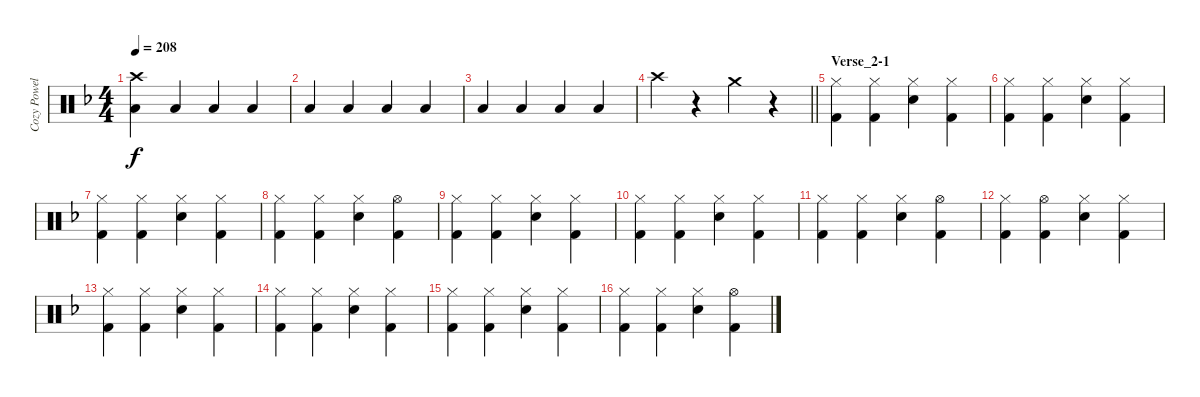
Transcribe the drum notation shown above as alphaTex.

\track ("Cozy Powell" "Cozy Powel") {instrument percussion}
\staff {score}
\articulation defaults
\ts (4 4)
\tempo 208
\clef neutral
\ks f
("Low Tom (hit)" "Crash high (hit)").4{dy f} "Low Tom (hit)".4{volume 10} "Low Tom (hit)".4 "Low Tom (hit)".4 |
"Low Tom (hit)".4 "Low Tom (hit)".4 "Low Tom (hit)".4 "Low Tom (hit)".4 |
"Low Tom (hit)".4 "Low Tom (hit)".4 "Low Tom (hit)".4 "Low Tom (hit)".4 |
\barLineRight lightlight "Crash high (hit)".4{volume 13}
r.4 "Crash medium (hit)".4 r.4 |
\section ("" "Verse_2-1")
("Hi-Hat (closed)" "Kick (hit) 2").4 ("Hi-Hat (closed)" "Kick (hit) 2").4 ("Hi-Hat (closed)" "Snare (hit) 2").4 ("Hi-Hat (closed)" "Kick (hit) 2").4 |
("Hi-Hat (closed)" "Kick (hit) 2").4 ("Hi-Hat (closed)" "Kick (hit) 2").4 ("Hi-Hat (closed)" "Snare (hit) 2").4 ("Hi-Hat (closed)" "Kick (hit) 2").4 |
("Hi-Hat (closed)" "Kick (hit) 2").4 ("Hi-Hat (closed)" "Kick (hit) 2").4 ("Hi-Hat (closed)" "Snare (hit) 2").4 ("Hi-Hat (closed)" "Kick (hit) 2").4 |
("Hi-Hat (closed)" "Kick (hit) 2").4 ("Hi-Hat (closed)" "Kick (hit) 2").4 ("Hi-Hat (closed)" "Snare (hit) 2").4 ("Hi-Hat (open)" "Kick (hit) 2").4 |
("Hi-Hat (closed)" "Kick (hit) 2").4 ("Hi-Hat (closed)" "Kick (hit) 2").4 ("Hi-Hat (closed)" "Snare (hit) 2").4 ("Hi-Hat (closed)" "Kick (hit) 2").4 |
("Hi-Hat (closed)" "Kick (hit) 2").4 ("Hi-Hat (closed)" "Kick (hit) 2").4 ("Hi-Hat (closed)" "Snare (hit) 2").4 ("Hi-Hat (closed)" "Kick (hit) 2").4 |
("Hi-Hat (closed)" "Kick (hit) 2").4 ("Hi-Hat (closed)" "Kick (hit) 2").4 ("Hi-Hat (closed)" "Snare (hit) 2").4 ("Hi-Hat (open)" "Kick (hit) 2").4 |
("Hi-Hat (closed)" "Kick (hit) 2").4 ("Hi-Hat (open)" "Kick (hit) 2").4 ("Hi-Hat (closed)" "Snare (hit) 2").4 ("Hi-Hat (closed)" "Kick (hit) 2").4 |
("Hi-Hat (closed)" "Kick (hit) 2").4 ("Hi-Hat (closed)" "Kick (hit) 2").4 ("Hi-Hat (closed)" "Snare (hit) 2").4 ("Hi-Hat (closed)" "Kick (hit) 2").4 |
("Hi-Hat (closed)" "Kick (hit) 2").4 ("Hi-Hat (closed)" "Kick (hit) 2").4 ("Hi-Hat (closed)" "Snare (hit) 2").4 ("Hi-Hat (closed)" "Kick (hit) 2").4 |
("Hi-Hat (closed)" "Kick (hit) 2").4 ("Hi-Hat (closed)" "Kick (hit) 2").4 ("Hi-Hat (closed)" "Snare (hit) 2").4 ("Hi-Hat (closed)" "Kick (hit) 2").4 |
("Hi-Hat (closed)" "Kick (hit) 2").4 ("Hi-Hat (closed)" "Kick (hit) 2").4 ("Hi-Hat (closed)" "Snare (hit) 2").4 ("Hi-Hat (open)" "Kick (hit) 2").4
